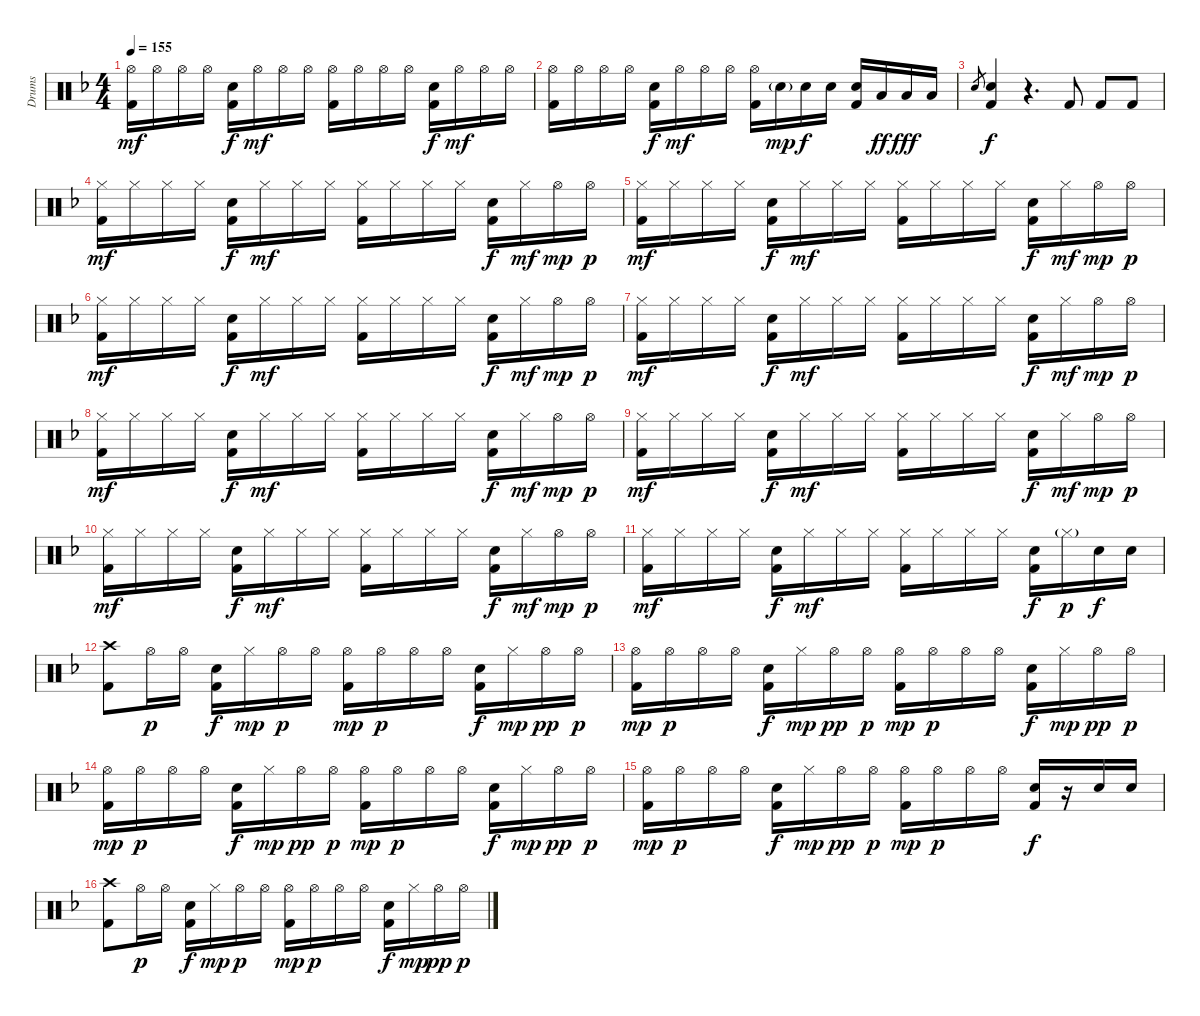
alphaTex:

\track ("Drums" "Drums") {instrument percussion}
\staff {score}
\articulation defaults
\ts (4 4)
\tempo 155
\clef neutral
\ks dminor
("Hi-Hat (open)" "Kick (hit) 2").16{dy mf} "Hi-Hat (open)".16 "Hi-Hat (open)".16 "Hi-Hat (open)".16 ("Snare (hit) 2" "Kick (hit) 2").16{dy f} "Hi-Hat (open)".16{dy mf} "Hi-Hat (open)".16 "Hi-Hat (open)".16 ("Hi-Hat (open)" "Kick (hit) 2").16 "Hi-Hat (open)".16 "Hi-Hat (open)".16 "Hi-Hat (open)".16 ("Snare (hit) 2" "Kick (hit) 2").16{dy f} "Hi-Hat (open)".16{dy mf} "Hi-Hat (open)".16 "Hi-Hat (open)".16 |
("Hi-Hat (open)" "Kick (hit) 2").16 "Hi-Hat (open)".16 "Hi-Hat (open)".16 "Hi-Hat (open)".16 ("Snare (hit) 2" "Kick (hit) 2").16{dy f} "Hi-Hat (open)".16{dy mf} "Hi-Hat (open)".16 "Hi-Hat (open)".16 ("Hi-Hat (open)" "Kick (hit) 2").16 "Snare (hit) 2"{g}.16{dy mp} "Snare (hit) 2".16{dy f} "Snare (hit) 2".16 ("Snare (hit) 2" "Kick (hit) 2").16 "Low Tom (hit)".16{dy ff} "Low Floor Tom (hit)".16{dy fff} "Low Floor Tom (hit)".16 |
"Snare (hit) 2".8{gr} ("Snare (hit) 2" "Kick (hit) 2").4{dy f} r.4{d} "Kick (hit) 2".8 "Kick (hit) 2".8 "Kick (hit) 2".8 |
("Hi-Hat (closed)" "Kick (hit) 2").16{dy mf} "Hi-Hat (closed)".16 "Hi-Hat (closed)".16 "Hi-Hat (closed)".16 ("Snare (hit) 2" "Kick (hit) 2").16{dy f} "Hi-Hat (closed)".16{dy mf} "Hi-Hat (closed)".16 "Hi-Hat (closed)".16 ("Hi-Hat (closed)" "Kick (hit) 2").16 "Hi-Hat (closed)".16 "Hi-Hat (closed)".16 "Hi-Hat (closed)".16 ("Snare (hit) 2" "Kick (hit) 2").16{dy f} "Hi-Hat (closed)".16{dy mf} "Hi-Hat (open)".16{dy mp} "Hi-Hat (open)".16{dy p} |
("Hi-Hat (closed)" "Kick (hit) 2").16{dy mf} "Hi-Hat (closed)".16 "Hi-Hat (closed)".16 "Hi-Hat (closed)".16 ("Snare (hit) 2" "Kick (hit) 2").16{dy f} "Hi-Hat (closed)".16{dy mf} "Hi-Hat (closed)".16 "Hi-Hat (closed)".16 ("Hi-Hat (closed)" "Kick (hit) 2").16 "Hi-Hat (closed)".16 "Hi-Hat (closed)".16 "Hi-Hat (closed)".16 ("Snare (hit) 2" "Kick (hit) 2").16{dy f} "Hi-Hat (closed)".16{dy mf} "Hi-Hat (open)".16{dy mp} "Hi-Hat (open)".16{dy p} |
("Hi-Hat (closed)" "Kick (hit) 2").16{dy mf} "Hi-Hat (closed)".16 "Hi-Hat (closed)".16 "Hi-Hat (closed)".16 ("Snare (hit) 2" "Kick (hit) 2").16{dy f} "Hi-Hat (closed)".16{dy mf} "Hi-Hat (closed)".16 "Hi-Hat (closed)".16 ("Hi-Hat (closed)" "Kick (hit) 2").16 "Hi-Hat (closed)".16 "Hi-Hat (closed)".16 "Hi-Hat (closed)".16 ("Snare (hit) 2" "Kick (hit) 2").16{dy f} "Hi-Hat (closed)".16{dy mf} "Hi-Hat (open)".16{dy mp} "Hi-Hat (open)".16{dy p} |
("Hi-Hat (closed)" "Kick (hit) 2").16{dy mf} "Hi-Hat (closed)".16 "Hi-Hat (closed)".16 "Hi-Hat (closed)".16 ("Snare (hit) 2" "Kick (hit) 2").16{dy f} "Hi-Hat (closed)".16{dy mf} "Hi-Hat (closed)".16 "Hi-Hat (closed)".16 ("Hi-Hat (closed)" "Kick (hit) 2").16 "Hi-Hat (closed)".16 "Hi-Hat (closed)".16 "Hi-Hat (closed)".16 ("Snare (hit) 2" "Kick (hit) 2").16{dy f} "Hi-Hat (closed)".16{dy mf} "Hi-Hat (open)".16{dy mp} "Hi-Hat (open)".16{dy p} |
("Hi-Hat (closed)" "Kick (hit) 2").16{dy mf} "Hi-Hat (closed)".16 "Hi-Hat (closed)".16 "Hi-Hat (closed)".16 ("Snare (hit) 2" "Kick (hit) 2").16{dy f} "Hi-Hat (closed)".16{dy mf} "Hi-Hat (closed)".16 "Hi-Hat (closed)".16 ("Hi-Hat (closed)" "Kick (hit) 2").16 "Hi-Hat (closed)".16 "Hi-Hat (closed)".16 "Hi-Hat (closed)".16 ("Snare (hit) 2" "Kick (hit) 2").16{dy f} "Hi-Hat (closed)".16{dy mf} "Hi-Hat (open)".16{dy mp} "Hi-Hat (open)".16{dy p} |
("Hi-Hat (closed)" "Kick (hit) 2").16{dy mf} "Hi-Hat (closed)".16 "Hi-Hat (closed)".16 "Hi-Hat (closed)".16 ("Snare (hit) 2" "Kick (hit) 2").16{dy f} "Hi-Hat (closed)".16{dy mf} "Hi-Hat (closed)".16 "Hi-Hat (closed)".16 ("Hi-Hat (closed)" "Kick (hit) 2").16 "Hi-Hat (closed)".16 "Hi-Hat (closed)".16 "Hi-Hat (closed)".16 ("Snare (hit) 2" "Kick (hit) 2").16{dy f} "Hi-Hat (closed)".16{dy mf} "Hi-Hat (open)".16{dy mp} "Hi-Hat (open)".16{dy p} |
("Hi-Hat (closed)" "Kick (hit) 2").16{dy mf} "Hi-Hat (closed)".16 "Hi-Hat (closed)".16 "Hi-Hat (closed)".16 ("Snare (hit) 2" "Kick (hit) 2").16{dy f} "Hi-Hat (closed)".16{dy mf} "Hi-Hat (closed)".16 "Hi-Hat (closed)".16 ("Hi-Hat (closed)" "Kick (hit) 2").16 "Hi-Hat (closed)".16 "Hi-Hat (closed)".16 "Hi-Hat (closed)".16 ("Snare (hit) 2" "Kick (hit) 2").16{dy f} "Hi-Hat (closed)".16{dy mf} "Hi-Hat (open)".16{dy mp} "Hi-Hat (open)".16{dy p} |
("Hi-Hat (closed)" "Kick (hit) 2").16{dy mf} "Hi-Hat (closed)".16 "Hi-Hat (closed)".16 "Hi-Hat (closed)".16 ("Snare (hit) 2" "Kick (hit) 2").16{dy f} "Hi-Hat (closed)".16{dy mf} "Hi-Hat (closed)".16 "Hi-Hat (closed)".16 ("Hi-Hat (closed)" "Kick (hit) 2").16 "Hi-Hat (closed)".16 "Hi-Hat (closed)".16 "Hi-Hat (closed)".16 ("Snare (hit) 2" "Kick (hit) 2").16{dy f} "Hi-Hat (closed)"{g}.16{dy p} "Snare (hit) 2".16{dy f} "Snare (hit) 2".16 |
("Crash high (hit)" "Kick (hit) 2").8 "Hi-Hat (open)".16{dy p} "Hi-Hat (open)".16 ("Snare (hit) 2" "Kick (hit) 2").16{dy f} "Hi-Hat (closed)".16{dy mp} "Hi-Hat (open)".16{dy p} "Hi-Hat (open)".16 ("Hi-Hat (open)" "Kick (hit) 2").16{dy mp} "Hi-Hat (open)".16{dy p} "Hi-Hat (open)".16 "Hi-Hat (open)".16 ("Snare (hit) 2" "Kick (hit) 2").16{dy f} "Hi-Hat (closed)".16{dy mp} "Hi-Hat (open)".16{dy pp} "Hi-Hat (open)".16{dy p} |
("Hi-Hat (open)" "Kick (hit) 2").16{dy mp} "Hi-Hat (open)".16{dy p} "Hi-Hat (open)".16 "Hi-Hat (open)".16 ("Snare (hit) 2" "Kick (hit) 2").16{dy f} "Hi-Hat (closed)".16{dy mp} "Hi-Hat (open)".16{dy pp} "Hi-Hat (open)".16{dy p} ("Hi-Hat (open)" "Kick (hit) 2").16{dy mp} "Hi-Hat (open)".16{dy p} "Hi-Hat (open)".16 "Hi-Hat (open)".16 ("Snare (hit) 2" "Kick (hit) 2").16{dy f} "Hi-Hat (closed)".16{dy mp} "Hi-Hat (open)".16{dy pp} "Hi-Hat (open)".16{dy p} |
("Hi-Hat (open)" "Kick (hit) 2").16{dy mp} "Hi-Hat (open)".16{dy p} "Hi-Hat (open)".16 "Hi-Hat (open)".16 ("Snare (hit) 2" "Kick (hit) 2").16{dy f} "Hi-Hat (closed)".16{dy mp} "Hi-Hat (open)".16{dy pp} "Hi-Hat (open)".16{dy p} ("Hi-Hat (open)" "Kick (hit) 2").16{dy mp} "Hi-Hat (open)".16{dy p} "Hi-Hat (open)".16 "Hi-Hat (open)".16 ("Snare (hit) 2" "Kick (hit) 2").16{dy f} "Hi-Hat (closed)".16{dy mp} "Hi-Hat (open)".16{dy pp} "Hi-Hat (open)".16{dy p} |
("Hi-Hat (open)" "Kick (hit) 2").16{dy mp} "Hi-Hat (open)".16{dy p} "Hi-Hat (open)".16 "Hi-Hat (open)".16 ("Snare (hit) 2" "Kick (hit) 2").16{dy f} "Hi-Hat (closed)".16{dy mp} "Hi-Hat (open)".16{dy pp} "Hi-Hat (open)".16{dy p} ("Hi-Hat (open)" "Kick (hit) 2").16{dy mp} "Hi-Hat (open)".16{dy p} "Hi-Hat (open)".16 "Hi-Hat (open)".16 ("Snare (hit) 2" "Kick (hit) 2").16{dy f} r.16 "Snare (hit) 2".16 "Snare (hit) 2".16 |
("Crash high (hit)" "Kick (hit) 2").8 "Hi-Hat (open)".16{dy p} "Hi-Hat (open)".16 ("Snare (hit) 2" "Kick (hit) 2").16{dy f} "Hi-Hat (closed)".16{dy mp} "Hi-Hat (open)".16{dy p} "Hi-Hat (open)".16 ("Hi-Hat (open)" "Kick (hit) 2").16{dy mp} "Hi-Hat (open)".16{dy p} "Hi-Hat (open)".16 "Hi-Hat (open)".16 ("Snare (hit) 2" "Kick (hit) 2").16{dy f} "Hi-Hat (closed)".16{dy mp} "Hi-Hat (open)".16{dy pp} "Hi-Hat (open)".16{dy p}
